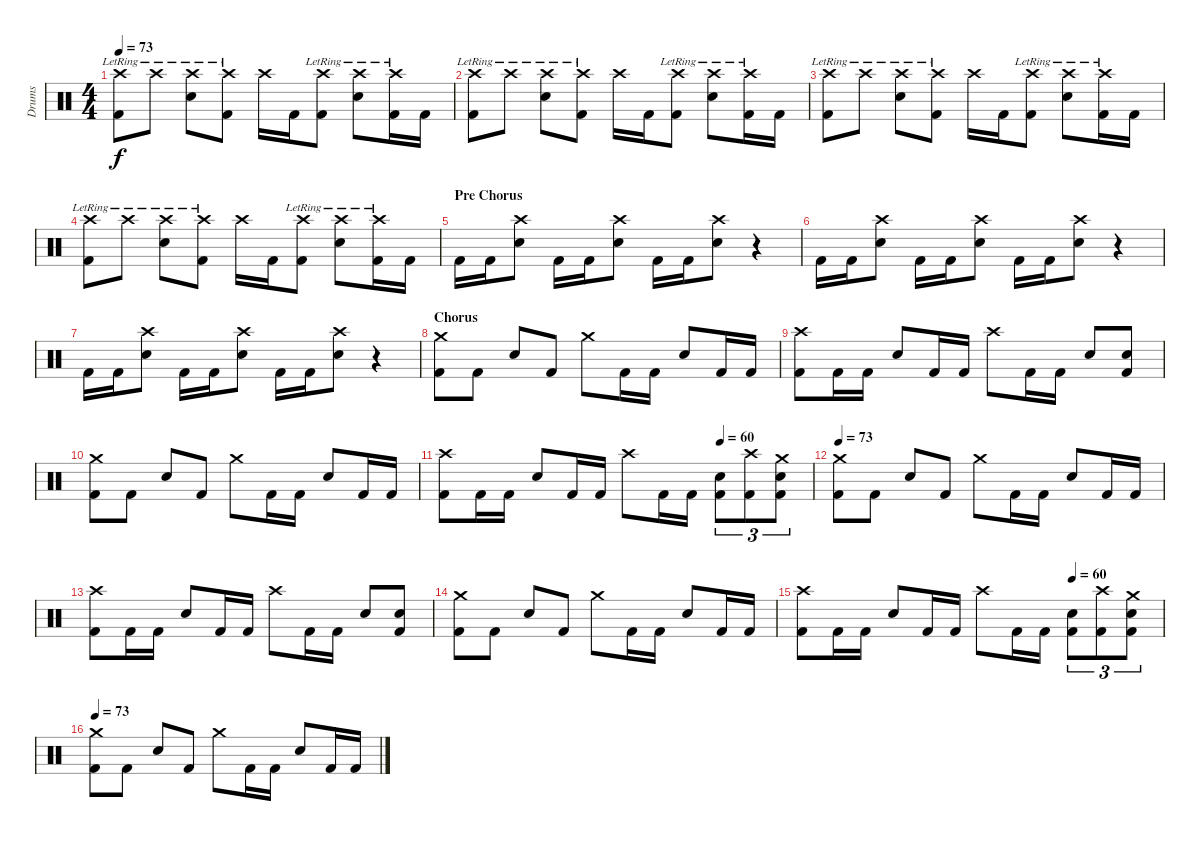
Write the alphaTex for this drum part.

\track ("Drums" "Drums") {instrument percussion}
\staff {score}
\articulation defaults
\ts (4 4)
\tempo 73
\clef neutral
\ks c
("Crash high (hit)"{lr} "Kick (hit) 2").8{dy f} "Crash high (hit)"{lr}.8 ("Crash high (hit)"{lr} "Snare (hit) 2").8 ("Crash high (hit)"{lr} "Kick (hit) 2").8 "Crash high (hit)".16 "Kick (hit) 2".16 ("Crash high (hit)"{lr} "Kick (hit) 2").8 ("Crash high (hit)"{lr} "Snare (hit) 2").8 ("Crash high (hit)"{lr} "Kick (hit) 2").16 "Kick (hit) 2".16 |
("Crash high (hit)"{lr} "Kick (hit) 2").8 "Crash high (hit)"{lr}.8 ("Crash high (hit)"{lr} "Snare (hit) 2").8 ("Crash high (hit)"{lr} "Kick (hit) 2").8 "Crash high (hit)".16 "Kick (hit) 2".16 ("Crash high (hit)"{lr} "Kick (hit) 2").8 ("Crash high (hit)"{lr} "Snare (hit) 2").8 ("Crash high (hit)"{lr} "Kick (hit) 2").16 "Kick (hit) 2".16 |
("Crash high (hit)"{lr} "Kick (hit) 2").8 "Crash high (hit)"{lr}.8 ("Crash high (hit)"{lr} "Snare (hit) 2").8 ("Crash high (hit)"{lr} "Kick (hit) 2").8 "Crash high (hit)".16 "Kick (hit) 2".16 ("Crash high (hit)"{lr} "Kick (hit) 2").8 ("Crash high (hit)"{lr} "Snare (hit) 2").8 ("Crash high (hit)"{lr} "Kick (hit) 2").16 "Kick (hit) 2".16 |
("Crash high (hit)"{lr} "Kick (hit) 2").8 "Crash high (hit)"{lr}.8 ("Crash high (hit)"{lr} "Snare (hit) 2").8 ("Crash high (hit)"{lr} "Kick (hit) 2").8 "Crash high (hit)".16 "Kick (hit) 2".16 ("Crash high (hit)"{lr} "Kick (hit) 2").8 ("Crash high (hit)"{lr} "Snare (hit) 2").8 ("Crash high (hit)"{lr} "Kick (hit) 2").16 "Kick (hit) 2".16 |
\section ("" "Pre Chorus")
"Kick (hit) 2".16 "Kick (hit) 2".16 ("Crash high (hit)" "Snare (hit) 2").8 "Kick (hit) 2".16 "Kick (hit) 2".16 ("Crash high (hit)" "Snare (hit) 2").8 "Kick (hit) 2".16 "Kick (hit) 2".16 ("Crash high (hit)" "Snare (hit) 2").8 r.4 |
"Kick (hit) 2".16 "Kick (hit) 2".16 ("Crash high (hit)" "Snare (hit) 2").8 "Kick (hit) 2".16 "Kick (hit) 2".16 ("Crash high (hit)" "Snare (hit) 2").8 "Kick (hit) 2".16 "Kick (hit) 2".16 ("Crash high (hit)" "Snare (hit) 2").8 r.4 |
"Kick (hit) 2".16 "Kick (hit) 2".16 ("Crash high (hit)" "Snare (hit) 2").8 "Kick (hit) 2".16 "Kick (hit) 2".16 ("Crash high (hit)" "Snare (hit) 2").8 "Kick (hit) 2".16 "Kick (hit) 2".16 ("Crash high (hit)" "Snare (hit) 2").8 r.4 |
\section ("" "Chorus")
("Crash medium (hit)" "Kick (hit) 2").8 "Kick (hit) 2".8 "Snare (hit) 2".8 "Kick (hit) 2".8 "Crash medium (hit)".8 "Kick (hit) 2".16 "Kick (hit) 2".16 "Snare (hit) 2".8 "Kick (hit) 2".16 "Kick (hit) 2".16 |
("Crash high (hit)" "Kick (hit) 2").8 "Kick (hit) 2".16 "Kick (hit) 2".16 "Snare (hit) 2".8 "Kick (hit) 2".16 "Kick (hit) 2".16 "Crash high (hit)".8 "Kick (hit) 2".16 "Kick (hit) 2".16 "Snare (hit) 2".8 ("Snare (hit) 2" "Kick (hit) 2").8 |
("Crash medium (hit)" "Kick (hit) 2").8 "Kick (hit) 2".8 "Snare (hit) 2".8 "Kick (hit) 2".8 "Crash medium (hit)".8 "Kick (hit) 2".16 "Kick (hit) 2".16 "Snare (hit) 2".8 "Kick (hit) 2".16 "Kick (hit) 2".16 |
\tempo (60 0.75)
("Crash high (hit)" "Kick (hit) 2").8 "Kick (hit) 2".16 "Kick (hit) 2".16 "Snare (hit) 2".8 "Kick (hit) 2".16 "Kick (hit) 2".16 "Crash high (hit)".8 "Kick (hit) 2".16 "Kick (hit) 2".16 ("Snare (hit) 2" "Kick (hit) 2").8{tu (3 2)} ("Crash high (hit)" "Kick (hit) 2").8{tu (3 2)} ("Crash medium (hit)" "Snare (hit) 2" "Kick (hit) 2").8{tu (3 2)} |
\tempo 73
("Crash medium (hit)" "Kick (hit) 2").8 "Kick (hit) 2".8 "Snare (hit) 2".8 "Kick (hit) 2".8 "Crash medium (hit)".8 "Kick (hit) 2".16 "Kick (hit) 2".16 "Snare (hit) 2".8 "Kick (hit) 2".16 "Kick (hit) 2".16 |
("Crash high (hit)" "Kick (hit) 2").8 "Kick (hit) 2".16 "Kick (hit) 2".16 "Snare (hit) 2".8 "Kick (hit) 2".16 "Kick (hit) 2".16 "Crash high (hit)".8 "Kick (hit) 2".16 "Kick (hit) 2".16 "Snare (hit) 2".8 ("Snare (hit) 2" "Kick (hit) 2").8 |
("Crash medium (hit)" "Kick (hit) 2").8 "Kick (hit) 2".8 "Snare (hit) 2".8 "Kick (hit) 2".8 "Crash medium (hit)".8 "Kick (hit) 2".16 "Kick (hit) 2".16 "Snare (hit) 2".8 "Kick (hit) 2".16 "Kick (hit) 2".16 |
\tempo (60 0.75)
("Crash high (hit)" "Kick (hit) 2").8 "Kick (hit) 2".16 "Kick (hit) 2".16 "Snare (hit) 2".8 "Kick (hit) 2".16 "Kick (hit) 2".16 "Crash high (hit)".8 "Kick (hit) 2".16 "Kick (hit) 2".16 ("Snare (hit) 2" "Kick (hit) 2").8{tu (3 2)} ("Crash high (hit)" "Kick (hit) 2").8{tu (3 2)} ("Crash medium (hit)" "Snare (hit) 2" "Kick (hit) 2").8{tu (3 2)} |
\tempo 73
("Crash medium (hit)" "Kick (hit) 2").8 "Kick (hit) 2".8 "Snare (hit) 2".8 "Kick (hit) 2".8 "Crash medium (hit)".8 "Kick (hit) 2".16 "Kick (hit) 2".16 "Snare (hit) 2".8 "Kick (hit) 2".16 "Kick (hit) 2".16
